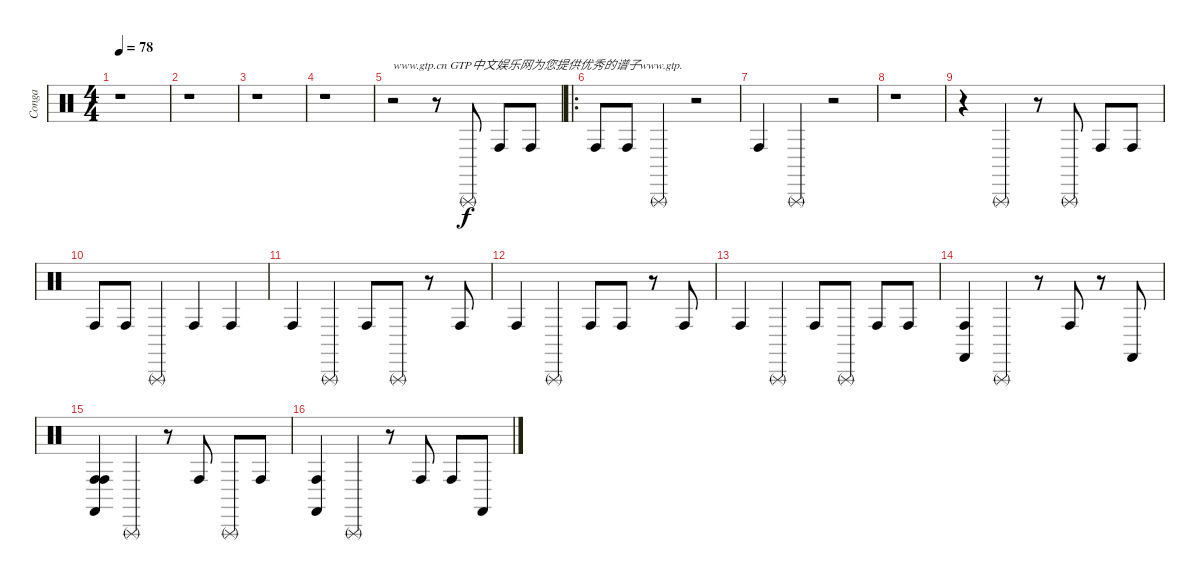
\track ("Conga" "Conga") {instrument percussion}
\staff {score}
\articulation defaults
\ts (4 4)
\tempo 78
\clef neutral
\ks c
r.1{dy f} |
r.1 |
r.1 |
r.1 |
r.2{txt "www.gtp.cn GTP中文娱乐网为您提供优秀的谱子www.gtp."} r.8 "Triangle (rnute)".8 "Conga high (hit)".8 "Conga high (hit)".8 |
\ro "Conga high (hit)".8 "Conga high (hit)".8 "Triangle (rnute)".4
r.2 |
"Conga high (hit)".4 "Triangle (rnute)".4 r.2 |
r.1 |
r.4 "Triangle (rnute)".4 r.8 "Triangle (rnute)".8 "Conga high (hit)".8 "Conga high (hit)".8 |
"Conga high (hit)".8 "Conga high (hit)".8 "Triangle (rnute)".4 "Conga high (hit)".4 "Conga high (hit)".4 |
"Conga high (hit)".4 "Triangle (rnute)".4 "Conga high (hit)".8 "Triangle (rnute)".8 r.8 "Conga high (hit)".8 |
"Conga high (hit)".4 "Triangle (rnute)".4 "Conga high (hit)".8 "Conga high (hit)".8 r.8 "Conga high (hit)".8 |
"Conga high (hit)".4 "Triangle (rnute)".4 "Conga high (hit)".8 "Triangle (rnute)".8 "Conga high (hit)".8 "Conga high (hit)".8 |
("Castanets (hit)" "Conga high (hit)").4 "Triangle (rnute)".4 r.8 "Conga high (hit)".8 r.8 "Castanets (hit)".8 |
("Conga high (hit)" "Castanets (hit)" "Conga high (hit)").4 "Triangle (rnute)".4 r.8 "Conga high (hit)".8 "Triangle (rnute)".8 "Conga high (hit)".8 |
("Castanets (hit)" "Conga high (hit)").4 "Triangle (rnute)".4 r.8 "Conga high (hit)".8 "Conga high (hit)".8 "Castanets (hit)".8
